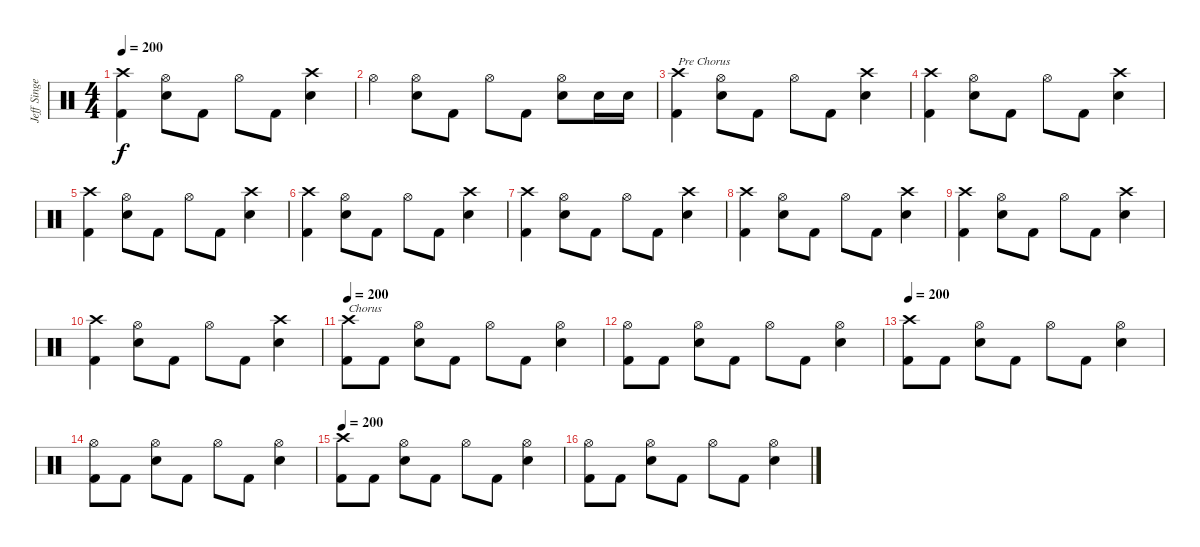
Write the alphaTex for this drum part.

\track ("Jeff Singer" "Jeff Singe") {instrument percussion}
\staff {score}
\articulation defaults
\ts (4 4)
\tempo 200
\clef neutral
\ks c
("Crash high (hit)" "Kick (hit) 2").4{dy f} ("Hi-Hat (open)" "Snare (hit) 2").8 "Kick (hit) 2".8 "Hi-Hat (open)".8 "Kick (hit) 2".8 ("Crash high (hit)" "Snare (hit) 2").4 |
"Hi-Hat (open)".4 ("Hi-Hat (open)" "Snare (hit) 2").8 "Kick (hit) 2".8 "Hi-Hat (open)".8 "Kick (hit) 2".8 ("Hi-Hat (open)" "Snare (hit) 2").8 "Snare (hit) 2".16 "Snare (hit) 2".16 |
("Crash high (hit)" "Kick (hit) 2").4{txt "Pre Chorus"} ("Hi-Hat (open)" "Snare (hit) 2").8 "Kick (hit) 2".8 "Hi-Hat (open)".8 "Kick (hit) 2".8 ("Crash high (hit)" "Snare (hit) 2").4 |
("Crash high (hit)" "Kick (hit) 2").4 ("Hi-Hat (open)" "Snare (hit) 2").8 "Kick (hit) 2".8 "Hi-Hat (open)".8 "Kick (hit) 2".8 ("Crash high (hit)" "Snare (hit) 2").4 |
("Crash high (hit)" "Kick (hit) 2").4 ("Hi-Hat (open)" "Snare (hit) 2").8 "Kick (hit) 2".8 "Hi-Hat (open)".8 "Kick (hit) 2".8 ("Crash high (hit)" "Snare (hit) 2").4 |
("Crash high (hit)" "Kick (hit) 2").4 ("Hi-Hat (open)" "Snare (hit) 2").8 "Kick (hit) 2".8 "Hi-Hat (open)".8 "Kick (hit) 2".8 ("Crash high (hit)" "Snare (hit) 2").4 |
("Crash high (hit)" "Kick (hit) 2").4 ("Hi-Hat (open)" "Snare (hit) 2").8 "Kick (hit) 2".8 "Hi-Hat (open)".8 "Kick (hit) 2".8 ("Crash high (hit)" "Snare (hit) 2").4 |
("Crash high (hit)" "Kick (hit) 2").4 ("Hi-Hat (open)" "Snare (hit) 2").8 "Kick (hit) 2".8 "Hi-Hat (open)".8 "Kick (hit) 2".8 ("Crash high (hit)" "Snare (hit) 2").4 |
("Crash high (hit)" "Kick (hit) 2").4 ("Hi-Hat (open)" "Snare (hit) 2").8 "Kick (hit) 2".8 "Hi-Hat (open)".8 "Kick (hit) 2".8 ("Crash high (hit)" "Snare (hit) 2").4 |
("Crash high (hit)" "Kick (hit) 2").4 ("Hi-Hat (open)" "Snare (hit) 2").8 "Kick (hit) 2".8 "Hi-Hat (open)".8 "Kick (hit) 2".8 ("Crash high (hit)" "Snare (hit) 2").4 |
\tempo 200
("Crash high (hit)" "Kick (hit) 2").8{txt "Chorus"} "Kick (hit) 2".8 ("Hi-Hat (open)" "Snare (hit) 2").8 "Kick (hit) 2".8 "Hi-Hat (open)".8 "Kick (hit) 2".8 ("Hi-Hat (open)" "Snare (hit) 2").4 |
("Hi-Hat (open)" "Kick (hit) 2").8 "Kick (hit) 2".8 ("Hi-Hat (open)" "Snare (hit) 2").8 "Kick (hit) 2".8 "Hi-Hat (open)".8 "Kick (hit) 2".8 ("Hi-Hat (open)" "Snare (hit) 2").4 |
\tempo 200
("Crash high (hit)" "Kick (hit) 2").8 "Kick (hit) 2".8 ("Hi-Hat (open)" "Snare (hit) 2").8 "Kick (hit) 2".8 "Hi-Hat (open)".8 "Kick (hit) 2".8 ("Hi-Hat (open)" "Snare (hit) 2").4 |
("Hi-Hat (open)" "Kick (hit) 2").8 "Kick (hit) 2".8 ("Hi-Hat (open)" "Snare (hit) 2").8 "Kick (hit) 2".8 "Hi-Hat (open)".8 "Kick (hit) 2".8 ("Hi-Hat (open)" "Snare (hit) 2").4 |
\tempo 200
("Crash high (hit)" "Kick (hit) 2").8 "Kick (hit) 2".8 ("Hi-Hat (open)" "Snare (hit) 2").8 "Kick (hit) 2".8 "Hi-Hat (open)".8 "Kick (hit) 2".8 ("Hi-Hat (open)" "Snare (hit) 2").4 |
("Hi-Hat (open)" "Kick (hit) 2").8 "Kick (hit) 2".8 ("Hi-Hat (open)" "Snare (hit) 2").8 "Kick (hit) 2".8 "Hi-Hat (open)".8 "Kick (hit) 2".8 ("Hi-Hat (open)" "Snare (hit) 2").4
